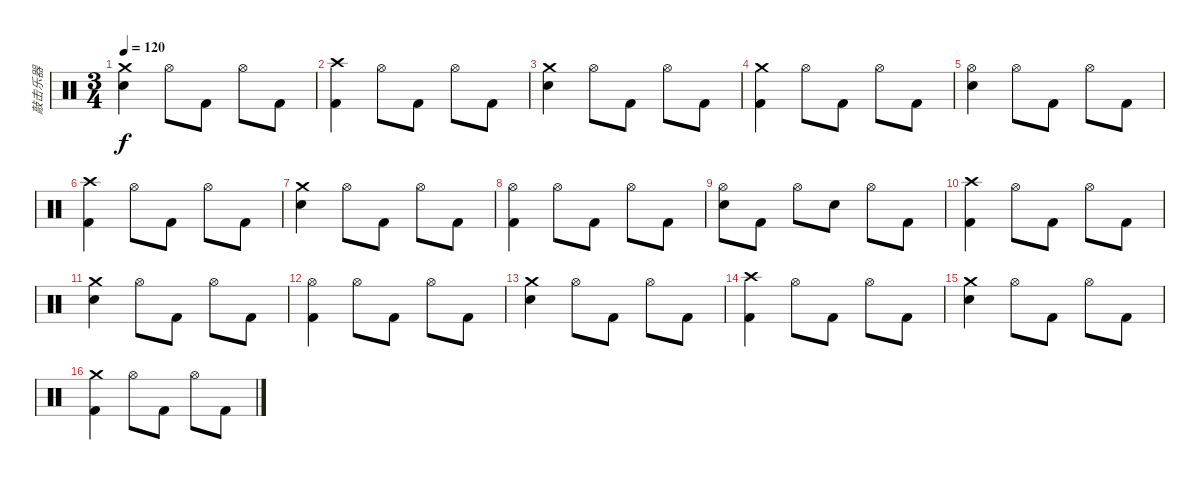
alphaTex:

\track ("敲击乐器" "敲击乐器") {instrument percussion}
\staff {score}
\articulation defaults
\ts (3 4)
\tempo 120
\clef neutral
\ks c
("Crash medium (hit)" "Snare (hit) 2").4{dy f} "Hi-Hat (open)".8 "Kick (hit) 2".8 "Hi-Hat (open)".8 "Kick (hit) 2".8 |
("Crash high (hit)" "Kick (hit) 2").4 "Hi-Hat (open)".8 "Kick (hit) 2".8 "Hi-Hat (open)".8 "Kick (hit) 2".8 |
("Crash medium (hit)" "Snare (hit) 2").4 "Hi-Hat (open)".8 "Kick (hit) 2".8 "Hi-Hat (open)".8 "Kick (hit) 2".8 |
("Crash medium (hit)" "Kick (hit) 2").4 "Hi-Hat (open)".8 "Kick (hit) 2".8 "Hi-Hat (open)".8 "Kick (hit) 2".8 |
("Hi-Hat (open)" "Snare (hit) 2").4 "Hi-Hat (open)".8 "Kick (hit) 2".8 "Hi-Hat (open)".8 "Kick (hit) 2".8 |
("Crash high (hit)" "Kick (hit) 2").4 "Hi-Hat (open)".8 "Kick (hit) 2".8 "Hi-Hat (open)".8 "Kick (hit) 2".8 |
("Crash medium (hit)" "Snare (hit) 2").4 "Hi-Hat (open)".8 "Kick (hit) 2".8 "Hi-Hat (open)".8 "Kick (hit) 2".8 |
("Hi-Hat (open)" "Kick (hit) 2").4 "Hi-Hat (open)".8 "Kick (hit) 2".8 "Hi-Hat (open)".8 "Kick (hit) 2".8 |
("Hi-Hat (open)" "Snare (hit) 2").8 "Kick (hit) 2".8 "Hi-Hat (open)".8 "Snare (hit) 2".8 "Hi-Hat (open)".8 "Kick (hit) 2".8 |
("Crash high (hit)" "Kick (hit) 2").4 "Hi-Hat (open)".8 "Kick (hit) 2".8 "Hi-Hat (open)".8 "Kick (hit) 2".8 |
("Crash medium (hit)" "Snare (hit) 2").4 "Hi-Hat (open)".8 "Kick (hit) 2".8 "Hi-Hat (open)".8 "Kick (hit) 2".8 |
("Hi-Hat (open)" "Kick (hit) 2").4 "Hi-Hat (open)".8 "Kick (hit) 2".8 "Hi-Hat (open)".8 "Kick (hit) 2".8 |
("Crash medium (hit)" "Snare (hit) 2").4 "Hi-Hat (open)".8 "Kick (hit) 2".8 "Hi-Hat (open)".8 "Kick (hit) 2".8 |
("Crash high (hit)" "Kick (hit) 2").4 "Hi-Hat (open)".8 "Kick (hit) 2".8 "Hi-Hat (open)".8 "Kick (hit) 2".8 |
("Crash medium (hit)" "Snare (hit) 2").4 "Hi-Hat (open)".8 "Kick (hit) 2".8 "Hi-Hat (open)".8 "Kick (hit) 2".8 |
("Crash medium (hit)" "Kick (hit) 2").4 "Hi-Hat (open)".8 "Kick (hit) 2".8 "Hi-Hat (open)".8 "Kick (hit) 2".8
